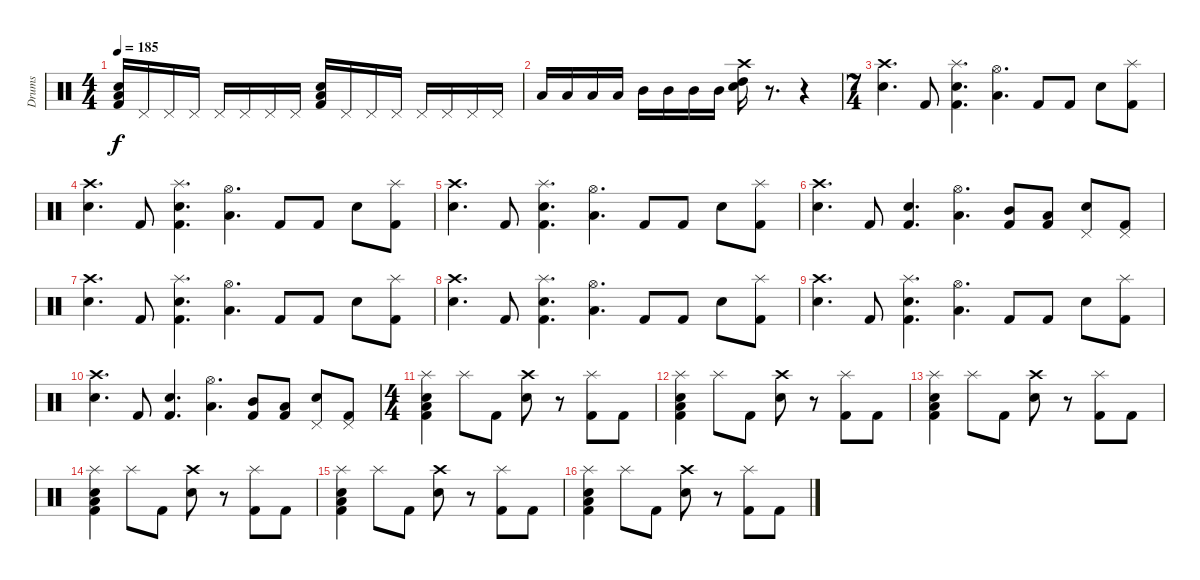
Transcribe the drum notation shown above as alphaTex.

\track ("Drums" "Drums") {instrument percussion}
\staff {score}
\articulation defaults
\ts (4 4)
\tempo 185
\clef neutral
\ks c
("Low Tom (hit)" "Electric Snare (hit)" "Kick (hit) 2").16{dy f} "Pedal Hi-Hat (hit)".16 "Pedal Hi-Hat (hit)".16 "Pedal Hi-Hat (hit)".16 "Pedal Hi-Hat (hit)".16 "Pedal Hi-Hat (hit)".16 "Pedal Hi-Hat (hit)".16 "Pedal Hi-Hat (hit)".16 ("Low Tom (hit)" "Electric Snare (hit)" "Kick (hit) 2").16 "Pedal Hi-Hat (hit)".16 "Pedal Hi-Hat (hit)".16 "Pedal Hi-Hat (hit)".16 "Pedal Hi-Hat (hit)".16 "Pedal Hi-Hat (hit)".16 "Pedal Hi-Hat (hit)".16 "Pedal Hi-Hat (hit)".16 |
"Low Tom (hit)".16 "Low Tom (hit)".16 "Low Tom (hit)".16 "Low Tom (hit)".16 "Mid Tom (hit)".16 "Mid Tom (hit)".16 "Mid Tom (hit)".16 "Mid Tom (hit)".16 ("Electric Snare (hit)" "Crash high (hit)" "High Tom (hit)").16 r.8{d} r.4 |
\ts (7 4)
("Crash high (hit)" "Electric Snare (hit)").4{d} "Kick (hit) 2".8 ("Splash (hit)" "Kick (hit) 2" "Electric Snare (hit)").4{d} ("Hi-Hat (open)" "Low Tom (hit)").4{d} "Kick (hit) 2".8 "Kick (hit) 2".8 "Electric Snare (hit)".8 ("Splash (hit)" "Kick (hit) 2").8 |
("Crash high (hit)" "Electric Snare (hit)").4{d} "Kick (hit) 2".8 ("Splash (hit)" "Kick (hit) 2" "Electric Snare (hit)").4{d} ("Hi-Hat (open)" "Low Tom (hit)").4{d} "Kick (hit) 2".8 "Kick (hit) 2".8 "Electric Snare (hit)".8 ("Splash (hit)" "Kick (hit) 2").8 |
("Crash high (hit)" "Electric Snare (hit)").4{d} "Kick (hit) 2".8 ("Splash (hit)" "Kick (hit) 2" "Electric Snare (hit)").4{d} ("Hi-Hat (open)" "Low Tom (hit)").4{d} "Kick (hit) 2".8 "Kick (hit) 2".8 "Electric Snare (hit)".8 ("Splash (hit)" "Kick (hit) 2").8 |
("Crash high (hit)" "Electric Snare (hit)").4{d} "Kick (hit) 2".8 ("Kick (hit) 2" "Electric Snare (hit)").4{d} ("Hi-Hat (open)" "Low Tom (hit)").4{d} ("Mid Tom (hit)" "Kick (hit) 2").8 ("Low Tom (hit)" "Kick (hit) 2").8 ("Pedal Hi-Hat (hit)" "Electric Snare (hit)").8 ("Pedal Hi-Hat (hit)" "Kick (hit) 2").8 |
("Crash high (hit)" "Electric Snare (hit)").4{d} "Kick (hit) 2".8 ("Splash (hit)" "Kick (hit) 2" "Electric Snare (hit)").4{d} ("Hi-Hat (open)" "Low Tom (hit)").4{d} "Kick (hit) 2".8 "Kick (hit) 2".8 "Electric Snare (hit)".8 ("Splash (hit)" "Kick (hit) 2").8 |
("Crash high (hit)" "Electric Snare (hit)").4{d} "Kick (hit) 2".8 ("Splash (hit)" "Kick (hit) 2" "Electric Snare (hit)").4{d} ("Hi-Hat (open)" "Low Tom (hit)").4{d} "Kick (hit) 2".8 "Kick (hit) 2".8 "Electric Snare (hit)".8 ("Splash (hit)" "Kick (hit) 2").8 |
("Crash high (hit)" "Electric Snare (hit)").4{d} "Kick (hit) 2".8 ("Splash (hit)" "Kick (hit) 2" "Electric Snare (hit)").4{d} ("Hi-Hat (open)" "Low Tom (hit)").4{d} "Kick (hit) 2".8 "Kick (hit) 2".8 "Electric Snare (hit)".8 ("Splash (hit)" "Kick (hit) 2").8 |
("Crash high (hit)" "Electric Snare (hit)").4{d} "Kick (hit) 2".8 ("Kick (hit) 2" "Electric Snare (hit)").4{d} ("Hi-Hat (open)" "Low Tom (hit)").4{d} ("Mid Tom (hit)" "Kick (hit) 2").8 ("Low Tom (hit)" "Kick (hit) 2").8 ("Pedal Hi-Hat (hit)" "Electric Snare (hit)").8 ("Pedal Hi-Hat (hit)" "Kick (hit) 2").8 |
\ts (4 4)
("Snare (hit) 2" "Splash (hit)" "Kick (hit) 2" "Low Tom (hit)").4 "Splash (hit)".8 "Kick (hit) 2".8 ("Crash high (hit)" "Electric Snare (hit)").8 r.8 ("Splash (hit)" "Kick (hit) 2").8 "Kick (hit) 2".8 |
("Snare (hit) 2" "Splash (hit)" "Kick (hit) 2" "Low Tom (hit)").4 "Splash (hit)".8 "Kick (hit) 2".8 ("Crash high (hit)" "Electric Snare (hit)").8 r.8 ("Splash (hit)" "Kick (hit) 2").8 "Kick (hit) 2".8 |
("Snare (hit) 2" "Splash (hit)" "Kick (hit) 2" "Low Tom (hit)").4 "Splash (hit)".8 "Kick (hit) 2".8 ("Crash high (hit)" "Electric Snare (hit)").8 r.8 ("Splash (hit)" "Kick (hit) 2").8 "Kick (hit) 2".8 |
("Snare (hit) 2" "Splash (hit)" "Kick (hit) 2" "Low Tom (hit)").4 "Splash (hit)".8 "Kick (hit) 2".8 ("Crash high (hit)" "Electric Snare (hit)").8 r.8 ("Splash (hit)" "Kick (hit) 2").8 "Kick (hit) 2".8 |
("Snare (hit) 2" "Splash (hit)" "Kick (hit) 2" "Low Tom (hit)").4 "Splash (hit)".8 "Kick (hit) 2".8 ("Crash high (hit)" "Electric Snare (hit)").8 r.8 ("Splash (hit)" "Kick (hit) 2").8 "Kick (hit) 2".8 |
("Snare (hit) 2" "Splash (hit)" "Kick (hit) 2" "Low Tom (hit)").4 "Splash (hit)".8 "Kick (hit) 2".8 ("Crash high (hit)" "Electric Snare (hit)").8 r.8 ("Splash (hit)" "Kick (hit) 2").8 "Kick (hit) 2".8
